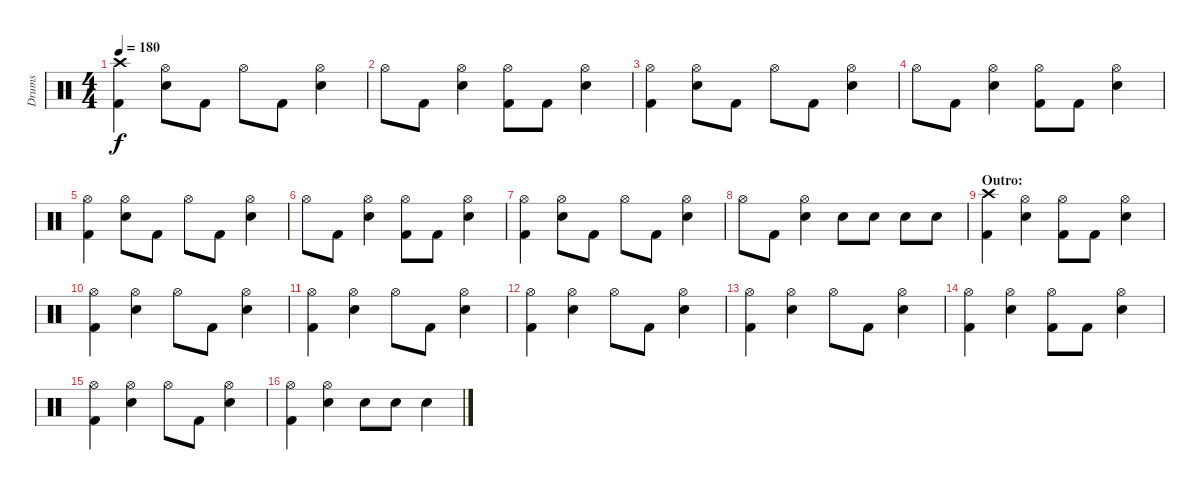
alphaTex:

\track ("Drums" "Drums") {instrument percussion}
\staff {score}
\articulation defaults
\ts (4 4)
\tempo 180
\clef neutral
\ks c
("Crash high (hit)" "Kick (hit) 2").4{dy f} ("Hi-Hat (open)" "Electric Snare (hit)").8 "Kick (hit) 2".8 "Hi-Hat (open)".8 "Kick (hit) 2".8 ("Hi-Hat (open)" "Electric Snare (hit)").4 |
"Hi-Hat (open)".8 "Kick (hit) 2".8 ("Hi-Hat (open)" "Electric Snare (hit)").4 ("Hi-Hat (open)" "Kick (hit) 2").8 "Kick (hit) 2".8 ("Hi-Hat (open)" "Electric Snare (hit)").4 |
("Hi-Hat (open)" "Kick (hit) 2").4 ("Hi-Hat (open)" "Electric Snare (hit)").8 "Kick (hit) 2".8 "Hi-Hat (open)".8 "Kick (hit) 2".8 ("Hi-Hat (open)" "Electric Snare (hit)").4 |
"Hi-Hat (open)".8 "Kick (hit) 2".8 ("Hi-Hat (open)" "Electric Snare (hit)").4 ("Hi-Hat (open)" "Kick (hit) 2").8 "Kick (hit) 2".8 ("Hi-Hat (open)" "Electric Snare (hit)").4 |
("Hi-Hat (open)" "Kick (hit) 2").4 ("Hi-Hat (open)" "Electric Snare (hit)").8 "Kick (hit) 2".8 "Hi-Hat (open)".8 "Kick (hit) 2".8 ("Hi-Hat (open)" "Electric Snare (hit)").4 |
"Hi-Hat (open)".8 "Kick (hit) 2".8 ("Hi-Hat (open)" "Electric Snare (hit)").4 ("Hi-Hat (open)" "Kick (hit) 2").8 "Kick (hit) 2".8 ("Hi-Hat (open)" "Electric Snare (hit)").4 |
("Hi-Hat (open)" "Kick (hit) 2").4 ("Hi-Hat (open)" "Electric Snare (hit)").8 "Kick (hit) 2".8 "Hi-Hat (open)".8 "Kick (hit) 2".8 ("Hi-Hat (open)" "Electric Snare (hit)").4 |
"Hi-Hat (open)".8 "Kick (hit) 2".8 ("Hi-Hat (open)" "Electric Snare (hit)").4 "Electric Snare (hit)".8 "Electric Snare (hit)".8 "Electric Snare (hit)".8 "Electric Snare (hit)".8 |
\section ("" "Outro:")
("Crash high (hit)" "Kick (hit) 2").4 ("Hi-Hat (open)" "Electric Snare (hit)").4 ("Hi-Hat (open)" "Kick (hit) 2").8 "Kick (hit) 2".8 ("Hi-Hat (open)" "Electric Snare (hit)").4 |
("Hi-Hat (open)" "Kick (hit) 2").4 ("Hi-Hat (open)" "Electric Snare (hit)").4 "Hi-Hat (open)".8 "Kick (hit) 2".8 ("Hi-Hat (open)" "Electric Snare (hit)").4 |
("Hi-Hat (open)" "Kick (hit) 2").4 ("Hi-Hat (open)" "Electric Snare (hit)").4 "Hi-Hat (open)".8 "Kick (hit) 2".8 ("Hi-Hat (open)" "Electric Snare (hit)").4 |
("Hi-Hat (open)" "Kick (hit) 2").4 ("Hi-Hat (open)" "Electric Snare (hit)").4 "Hi-Hat (open)".8 "Kick (hit) 2".8 ("Hi-Hat (open)" "Electric Snare (hit)").4 |
("Hi-Hat (open)" "Kick (hit) 2").4 ("Hi-Hat (open)" "Electric Snare (hit)").4 "Hi-Hat (open)".8 "Kick (hit) 2".8 ("Hi-Hat (open)" "Electric Snare (hit)").4 |
("Hi-Hat (open)" "Kick (hit) 2").4 ("Hi-Hat (open)" "Electric Snare (hit)").4 ("Hi-Hat (open)" "Kick (hit) 2").8 "Kick (hit) 2".8 ("Hi-Hat (open)" "Electric Snare (hit)").4 |
("Hi-Hat (open)" "Kick (hit) 2").4 ("Hi-Hat (open)" "Electric Snare (hit)").4 "Hi-Hat (open)".8 "Kick (hit) 2".8 ("Hi-Hat (open)" "Electric Snare (hit)").4 |
("Hi-Hat (open)" "Kick (hit) 2").4 ("Hi-Hat (open)" "Electric Snare (hit)").4 "Electric Snare (hit)".8 "Electric Snare (hit)".8 "Electric Snare (hit)".4
